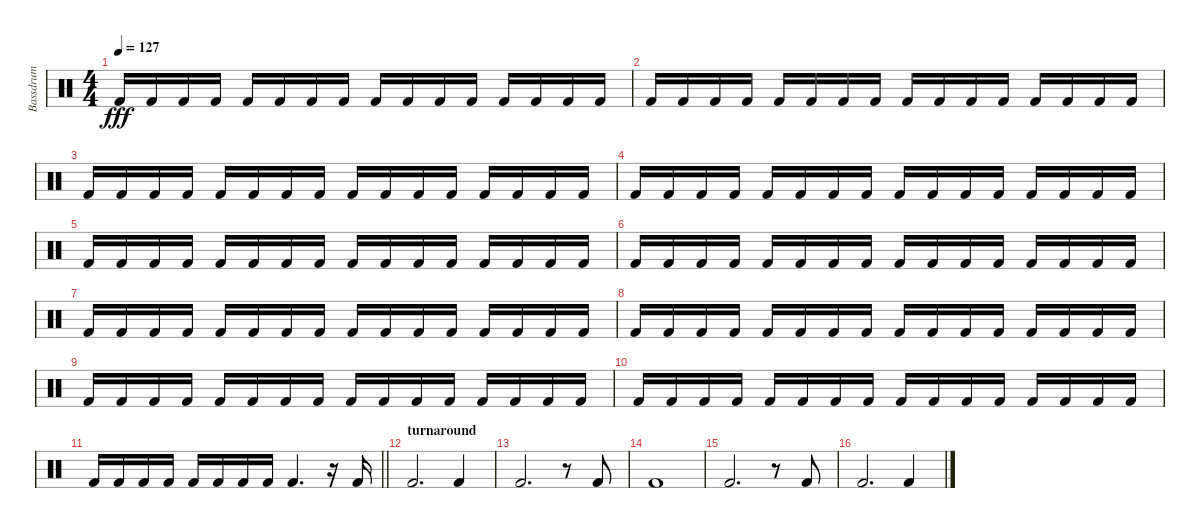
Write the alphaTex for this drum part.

\track ("Bassdrum" "Bassdrum") {instrument percussion}
\staff {score}
\articulation defaults
\ts (4 4)
\tempo 127
\clef neutral
\ks c "Kick (hit) 2".16{dy fff} "Kick (hit) 2".16 "Kick (hit) 2".16 "Kick (hit) 2".16 "Kick (hit) 2".16 "Kick (hit) 2".16 "Kick (hit) 2".16 "Kick (hit) 2".16 "Kick (hit) 2".16 "Kick (hit) 2".16 "Kick (hit) 2".16 "Kick (hit) 2".16 "Kick (hit) 2".16 "Kick (hit) 2".16 "Kick (hit) 2".16 "Kick (hit) 2".16
|
"Kick (hit) 2".16 "Kick (hit) 2".16 "Kick (hit) 2".16 "Kick (hit) 2".16 "Kick (hit) 2".16 "Kick (hit) 2".16 "Kick (hit) 2".16 "Kick (hit) 2".16 "Kick (hit) 2".16 "Kick (hit) 2".16 "Kick (hit) 2".16 "Kick (hit) 2".16 "Kick (hit) 2".16 "Kick (hit) 2".16 "Kick (hit) 2".16 "Kick (hit) 2".16 |
"Kick (hit) 2".16 "Kick (hit) 2".16 "Kick (hit) 2".16 "Kick (hit) 2".16 "Kick (hit) 2".16 "Kick (hit) 2".16 "Kick (hit) 2".16 "Kick (hit) 2".16 "Kick (hit) 2".16 "Kick (hit) 2".16 "Kick (hit) 2".16 "Kick (hit) 2".16 "Kick (hit) 2".16 "Kick (hit) 2".16 "Kick (hit) 2".16 "Kick (hit) 2".16 |
"Kick (hit) 2".16 "Kick (hit) 2".16 "Kick (hit) 2".16 "Kick (hit) 2".16 "Kick (hit) 2".16 "Kick (hit) 2".16 "Kick (hit) 2".16 "Kick (hit) 2".16 "Kick (hit) 2".16 "Kick (hit) 2".16 "Kick (hit) 2".16 "Kick (hit) 2".16 "Kick (hit) 2".16 "Kick (hit) 2".16 "Kick (hit) 2".16 "Kick (hit) 2".16 |
"Kick (hit) 2".16 "Kick (hit) 2".16 "Kick (hit) 2".16 "Kick (hit) 2".16 "Kick (hit) 2".16 "Kick (hit) 2".16 "Kick (hit) 2".16 "Kick (hit) 2".16 "Kick (hit) 2".16 "Kick (hit) 2".16 "Kick (hit) 2".16 "Kick (hit) 2".16 "Kick (hit) 2".16 "Kick (hit) 2".16 "Kick (hit) 2".16 "Kick (hit) 2".16 |
"Kick (hit) 2".16 "Kick (hit) 2".16 "Kick (hit) 2".16 "Kick (hit) 2".16 "Kick (hit) 2".16 "Kick (hit) 2".16 "Kick (hit) 2".16 "Kick (hit) 2".16 "Kick (hit) 2".16 "Kick (hit) 2".16 "Kick (hit) 2".16 "Kick (hit) 2".16 "Kick (hit) 2".16 "Kick (hit) 2".16 "Kick (hit) 2".16 "Kick (hit) 2".16 |
"Kick (hit) 2".16 "Kick (hit) 2".16 "Kick (hit) 2".16 "Kick (hit) 2".16 "Kick (hit) 2".16 "Kick (hit) 2".16 "Kick (hit) 2".16 "Kick (hit) 2".16 "Kick (hit) 2".16 "Kick (hit) 2".16 "Kick (hit) 2".16 "Kick (hit) 2".16 "Kick (hit) 2".16 "Kick (hit) 2".16 "Kick (hit) 2".16 "Kick (hit) 2".16 |
"Kick (hit) 2".16 "Kick (hit) 2".16 "Kick (hit) 2".16 "Kick (hit) 2".16 "Kick (hit) 2".16 "Kick (hit) 2".16 "Kick (hit) 2".16 "Kick (hit) 2".16 "Kick (hit) 2".16 "Kick (hit) 2".16 "Kick (hit) 2".16 "Kick (hit) 2".16 "Kick (hit) 2".16 "Kick (hit) 2".16 "Kick (hit) 2".16 "Kick (hit) 2".16 |
"Kick (hit) 2".16 "Kick (hit) 2".16 "Kick (hit) 2".16 "Kick (hit) 2".16 "Kick (hit) 2".16 "Kick (hit) 2".16 "Kick (hit) 2".16 "Kick (hit) 2".16 "Kick (hit) 2".16 "Kick (hit) 2".16 "Kick (hit) 2".16 "Kick (hit) 2".16 "Kick (hit) 2".16 "Kick (hit) 2".16 "Kick (hit) 2".16 "Kick (hit) 2".16 |
"Kick (hit) 2".16 "Kick (hit) 2".16 "Kick (hit) 2".16 "Kick (hit) 2".16 "Kick (hit) 2".16 "Kick (hit) 2".16 "Kick (hit) 2".16 "Kick (hit) 2".16 "Kick (hit) 2".16 "Kick (hit) 2".16 "Kick (hit) 2".16 "Kick (hit) 2".16 "Kick (hit) 2".16 "Kick (hit) 2".16 "Kick (hit) 2".16 "Kick (hit) 2".16 |
\barLineRight lightlight "Kick (hit) 2".16 "Kick (hit) 2".16 "Kick (hit) 2".16 "Kick (hit) 2".16 "Kick (hit) 2".16 "Kick (hit) 2".16 "Kick (hit) 2".16 "Kick (hit) 2".16 "Kick (hit) 2".4{d}
r.16 "Kick (hit) 2".16 |
\section ("" "turnaround")
"Kick (hit) 2".2{d} "Kick (hit) 2".4 |
"Kick (hit) 2".2{d} r.8 "Kick (hit) 2".8 |
"Kick (hit) 2".1 |
"Kick (hit) 2".2{d} r.8 "Kick (hit) 2".8 |
"Kick (hit) 2".2{d} "Kick (hit) 2".4
